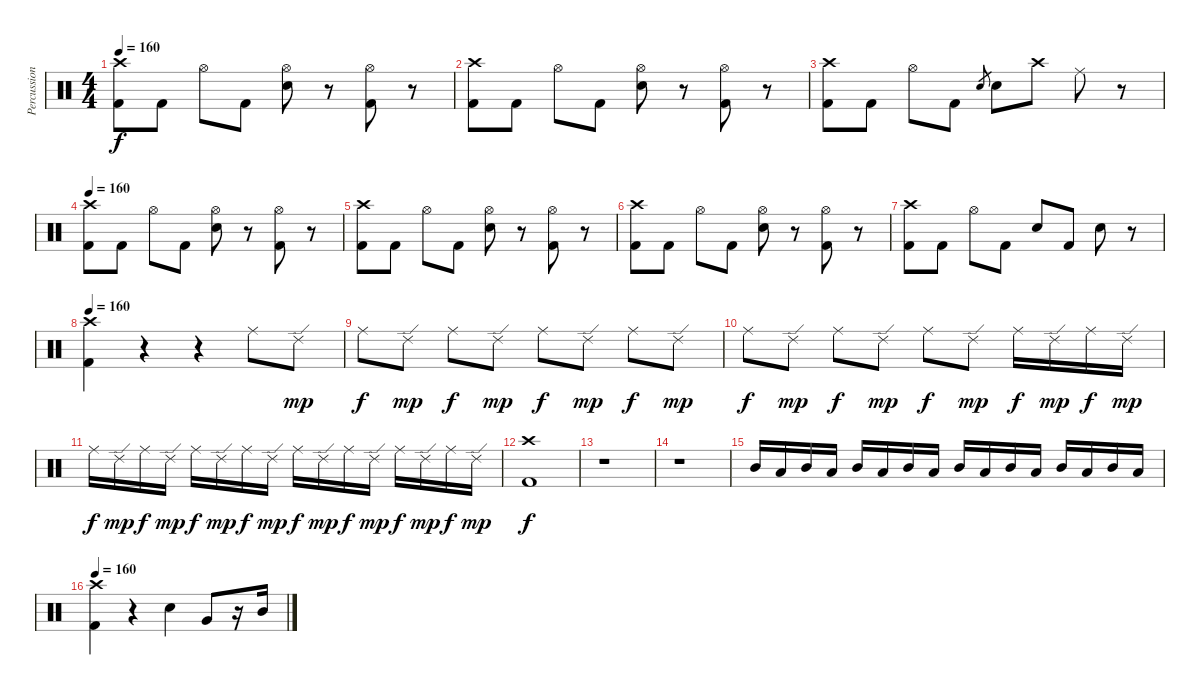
\track ("Percussions" "Percussion") {instrument percussion}
\staff {score}
\articulation defaults
\ts (4 4)
\tempo 160
\clef neutral
\ks c
("Kick (hit) 2" "Crash high (hit)").8{dy f} "Kick (hit) 2".8 "Hi-Hat (open)".8 "Kick (hit) 2".8 ("Electric Snare (hit)" "Hi-Hat (open)").8 r.8 ("Kick (hit) 2" "Hi-Hat (open)").8 r.8 |
("Kick (hit) 2" "Crash high (hit)").8 "Kick (hit) 2".8 "Hi-Hat (open)".8 "Kick (hit) 2".8 ("Electric Snare (hit)" "Hi-Hat (open)").8 r.8 ("Kick (hit) 2" "Hi-Hat (open)").8 r.8 |
("Kick (hit) 2" "Crash high (hit)").8 "Kick (hit) 2".8 "Hi-Hat (open)".8 "Kick (hit) 2".8 "Electric Snare (hit)".8{gr} "Electric Snare (hit)".8 "Crash high (hit)".8 "Ride (middle)".8 r.8 |
\tempo 160
("Kick (hit) 2" "Crash high (hit)").8 "Kick (hit) 2".8 "Hi-Hat (open)".8 "Kick (hit) 2".8 ("Electric Snare (hit)" "Hi-Hat (open)").8 r.8 ("Kick (hit) 2" "Hi-Hat (open)").8 r.8 |
("Kick (hit) 2" "Crash high (hit)").8 "Kick (hit) 2".8 "Hi-Hat (open)".8 "Kick (hit) 2".8 ("Electric Snare (hit)" "Hi-Hat (open)").8 r.8 ("Kick (hit) 2" "Hi-Hat (open)").8 r.8 |
("Kick (hit) 2" "Crash high (hit)").8 "Kick (hit) 2".8 "Hi-Hat (open)".8 "Kick (hit) 2".8 ("Electric Snare (hit)" "Hi-Hat (open)").8 r.8 ("Kick (hit) 2" "Hi-Hat (open)").8 r.8 |
("Kick (hit) 2" "Crash high (hit)").8 "Kick (hit) 2".8 "Hi-Hat (open)".8 "Kick (hit) 2".8 "Electric Snare (hit)".8 "Kick (hit) 2".8 "Electric Snare (hit)".8 r.8 |
\tempo 160
("Kick (hit) 2" "Crash high (hit)").4 r.4 r.4 "Ride (middle)".8 "Ride (edge) 2".8{dy mp} |
"Ride (middle)".8{dy f} "Ride (edge) 2".8{dy mp} "Ride (middle)".8{dy f} "Ride (edge) 2".8{dy mp} "Ride (middle)".8{dy f} "Ride (edge) 2".8{dy mp} "Ride (middle)".8{dy f} "Ride (edge) 2".8{dy mp} |
"Ride (middle)".8{dy f} "Ride (edge) 2".8{dy mp} "Ride (middle)".8{dy f} "Ride (edge) 2".8{dy mp} "Ride (middle)".8{dy f} "Ride (edge) 2".8{dy mp} "Ride (middle)".16{dy f} "Ride (edge) 2".16{dy mp} "Ride (middle)".16{dy f} "Ride (edge) 2".16{dy mp} |
"Ride (middle)".16{dy f} "Ride (edge) 2".16{dy mp} "Ride (middle)".16{dy f} "Ride (edge) 2".16{dy mp} "Ride (middle)".16{dy f} "Ride (edge) 2".16{dy mp} "Ride (middle)".16{dy f} "Ride (edge) 2".16{dy mp} "Ride (middle)".16{dy f} "Ride (edge) 2".16{dy mp} "Ride (middle)".16{dy f} "Ride (edge) 2".16{dy mp} "Ride (middle)".16{dy f} "Ride (edge) 2".16{dy mp} "Ride (middle)".16{dy f} "Ride (edge) 2".16{dy mp} |
("Kick (hit) 2" "Crash high (hit)").1{dy f} |
r.1 |
r.1{volume 0} |
"Mid Tom (hit)".16{volume 13} "Low Floor Tom (hit)".16 "Mid Tom (hit)".16 "Low Floor Tom (hit)".16 "Mid Tom (hit)".16 "Low Floor Tom (hit)".16 "Mid Tom (hit)".16 "Low Floor Tom (hit)".16 "Mid Tom (hit)".16 "Low Floor Tom (hit)".16 "Mid Tom (hit)".16 "Low Floor Tom (hit)".16 "Mid Tom (hit)".16 "Low Floor Tom (hit)".16 "Mid Tom (hit)".16 "Low Floor Tom (hit)".16 |
\tempo 160
("Kick (hit) 2" "Crash high (hit)").4 r.4 "Electric Snare (hit)".4 "Very Low Tom (hit)".8 r.16 "Mid Tom (hit)".16
